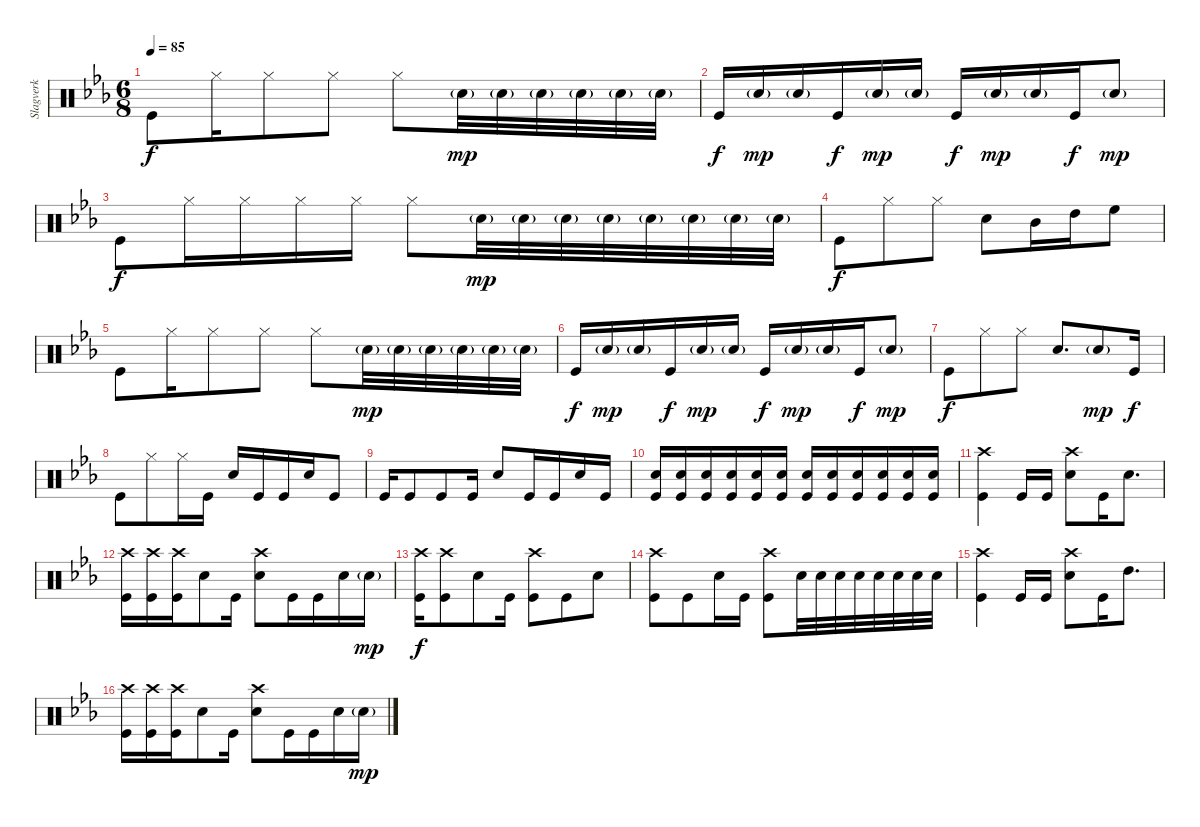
\track ("Slagverk" "Slagverk") {instrument percussion}
\staff {score}
\articulation defaults
\ts (6 8)
\tempo 85
\clef neutral
\ks eb "Kick (hit)".8{dy f} "Hi-Hat (closed)".16 "Hi-Hat (closed)".8 "Hi-Hat (closed)".8 "Hi-Hat (closed)".8 "Snare (hit) 2"{g}.32{dy mp} "Snare (hit) 2"{g}.32 "Snare (hit) 2"{g}.32 "Snare (hit) 2"{g}.32 "Snare (hit) 2"{g}.32 "Snare (hit) 2"{g}.32
|
"Kick (hit)".16{dy f} "Snare (hit) 2"{g}.16{dy mp} "Snare (hit) 2"{g}.16 "Kick (hit)".16{dy f} "Snare (hit) 2"{g}.16{dy mp} "Snare (hit) 2"{g}.16 "Kick (hit)".16{dy f} "Snare (hit) 2"{g}.16{dy mp} "Snare (hit) 2"{g}.16 "Kick (hit)".16{dy f} "Snare (hit) 2"{g}.8{dy mp} |
"Kick (hit)".8{dy f} "Hi-Hat (closed)".16 "Hi-Hat (closed)".16 "Hi-Hat (closed)".16 "Hi-Hat (closed)".16 "Hi-Hat (closed)".8 "Snare (hit) 2"{g}.32{dy mp} "Snare (hit) 2"{g}.32 "Snare (hit) 2"{g}.32 "Snare (hit) 2"{g}.32 "Snare (hit) 2"{g}.32 "Snare (hit) 2"{g}.32 "Snare (hit) 2"{g}.32 "Snare (hit) 2"{g}.32 |
"Kick (hit)".8{dy f} "Hi-Hat (closed)".8 "Hi-Hat (closed)".8 "Snare (hit) 2".8 "Mid Tom (hit)".16 "High Tom (hit)".16 "High Floor Tom (hit)".8 |
"Kick (hit)".8 "Hi-Hat (closed)".16 "Hi-Hat (closed)".8 "Hi-Hat (closed)".8 "Hi-Hat (closed)".8 "Snare (hit) 2"{g}.32{dy mp} "Snare (hit) 2"{g}.32 "Snare (hit) 2"{g}.32 "Snare (hit) 2"{g}.32 "Snare (hit) 2"{g}.32 "Snare (hit) 2"{g}.32 |
"Kick (hit)".16{dy f} "Snare (hit) 2"{g}.16{dy mp} "Snare (hit) 2"{g}.16 "Kick (hit)".16{dy f} "Snare (hit) 2"{g}.16{dy mp} "Snare (hit) 2"{g}.16 "Kick (hit)".16{dy f} "Snare (hit) 2"{g}.16{dy mp} "Snare (hit) 2"{g}.16 "Kick (hit)".16{dy f} "Snare (hit) 2"{g}.8{dy mp} |
"Kick (hit)".8{dy f} "Hi-Hat (closed)".8 "Hi-Hat (closed)".8 "Snare (hit) 2".8{d} "Snare (hit) 2"{g}.8{dy mp} "Kick (hit)".16{dy f} |
"Kick (hit)".8 "Hi-Hat (closed)".8 "Hi-Hat (closed)".16 "Kick (hit)".16 "Snare (hit) 2".16 "Kick (hit)".16 "Kick (hit)".16 "Snare (hit) 2".16 "Kick (hit)".8 |
"Kick (hit)".16 "Kick (hit)".8 "Kick (hit)".8 "Kick (hit)".16 "Snare (hit) 2".8 "Kick (hit)".16 "Kick (hit)".16 "Snare (hit) 2".16 "Kick (hit)".16 |
("Snare (hit) 2" "Kick (hit)").16 ("Snare (hit) 2" "Kick (hit)").16 ("Snare (hit) 2" "Kick (hit)").16 ("Snare (hit) 2" "Kick (hit)").16 ("Snare (hit) 2" "Kick (hit)").16 ("Snare (hit) 2" "Kick (hit)").16 ("Snare (hit) 2" "Kick (hit)").16 ("Snare (hit) 2" "Kick (hit)").16 ("Snare (hit) 2" "Kick (hit)").16 ("Snare (hit) 2" "Kick (hit)").16 ("Snare (hit) 2" "Kick (hit)").16 ("Snare (hit) 2" "Kick (hit)").16 |
("Crash high (hit)" "Kick (hit)").4 "Kick (hit)".16 "Kick (hit)".16 ("Crash high (hit)" "Snare (hit) 2").8 "Kick (hit)".16 "Snare (hit) 2".8{d} |
("Crash high (hit)" "Kick (hit)").16 ("Crash high (hit)" "Kick (hit)").16 ("Crash high (hit)" "Kick (hit)").16 "Snare (hit) 2".8 "Kick (hit)".16 ("Crash high (hit)" "Snare (hit) 2").8 "Kick (hit)".16 "Kick (hit)".16 "Snare (hit) 2".16 "Snare (hit) 2"{g}.16{dy mp} |
("Crash high (hit)" "Kick (hit)").16{dy f} ("Crash high (hit)" "Kick (hit)").8 "Snare (hit) 2".8 "Kick (hit)".16 ("Crash high (hit)" "Kick (hit)").8 "Kick (hit)".8 "Snare (hit) 2".8 |
("Crash high (hit)" "Kick (hit)").8 "Kick (hit)".8 "Snare (hit) 2".16 "Kick (hit)".16 ("Crash high (hit)" "Kick (hit)").8 "Snare (hit) 2".32 "Snare (hit) 2".32 "Snare (hit) 2".32 "Snare (hit) 2".32 "Snare (hit) 2".32 "Snare (hit) 2".32 "Snare (hit) 2".32 "Snare (hit) 2".32 |
("Crash high (hit)" "Kick (hit)").4 "Kick (hit)".16 "Kick (hit)".16 ("Crash high (hit)" "Snare (hit) 2").8 "Kick (hit)".16 "High Tom (hit)".8{d} |
("Crash high (hit)" "Kick (hit)").16 ("Crash high (hit)" "Kick (hit)").16 ("Crash high (hit)" "Kick (hit)").16 "Snare (hit) 2".8 "Kick (hit)".16 ("Crash high (hit)" "Snare (hit) 2").8 "Kick (hit)".16 "Kick (hit)".16 "Snare (hit) 2".16 "Snare (hit) 2"{g}.16{dy mp}
